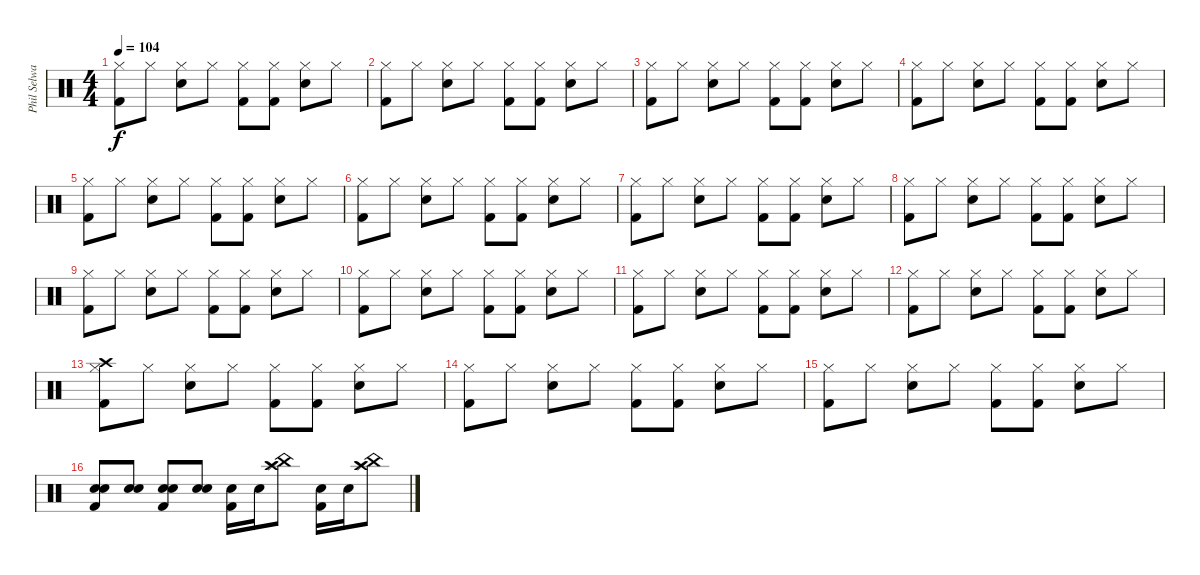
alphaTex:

\track ("Phil Selway" "Phil Selwa") {instrument percussion}
\staff {score}
\articulation defaults
\ts (4 4)
\tempo 104
\clef neutral
\ks c
("Kick (hit) 2" "Hi-Hat (closed)").8{dy f} "Hi-Hat (closed)".8 ("Electric Snare (hit)" "Hi-Hat (closed)").8 "Hi-Hat (closed)".8 ("Kick (hit) 2" "Hi-Hat (closed)").8 ("Kick (hit) 2" "Hi-Hat (closed)").8 ("Electric Snare (hit)" "Hi-Hat (closed)").8 "Hi-Hat (closed)".8 |
("Kick (hit) 2" "Hi-Hat (closed)").8 "Hi-Hat (closed)".8 ("Electric Snare (hit)" "Hi-Hat (closed)").8 "Hi-Hat (closed)".8 ("Kick (hit) 2" "Hi-Hat (closed)").8 ("Kick (hit) 2" "Hi-Hat (closed)").8 ("Electric Snare (hit)" "Hi-Hat (closed)").8 "Hi-Hat (closed)".8 |
("Kick (hit) 2" "Hi-Hat (closed)").8 "Hi-Hat (closed)".8 ("Electric Snare (hit)" "Hi-Hat (closed)").8 "Hi-Hat (closed)".8 ("Kick (hit) 2" "Hi-Hat (closed)").8 ("Kick (hit) 2" "Hi-Hat (closed)").8 ("Electric Snare (hit)" "Hi-Hat (closed)").8 "Hi-Hat (closed)".8 |
("Kick (hit) 2" "Hi-Hat (closed)").8 "Hi-Hat (closed)".8 ("Electric Snare (hit)" "Hi-Hat (closed)").8 "Hi-Hat (closed)".8 ("Kick (hit) 2" "Hi-Hat (closed)").8 ("Kick (hit) 2" "Hi-Hat (closed)").8 ("Electric Snare (hit)" "Hi-Hat (closed)").8 "Hi-Hat (closed)".8 |
("Kick (hit) 2" "Hi-Hat (closed)").8 "Hi-Hat (closed)".8 ("Electric Snare (hit)" "Hi-Hat (closed)").8 "Hi-Hat (closed)".8 ("Kick (hit) 2" "Hi-Hat (closed)").8 ("Kick (hit) 2" "Hi-Hat (closed)").8 ("Electric Snare (hit)" "Hi-Hat (closed)").8 "Hi-Hat (closed)".8 |
("Kick (hit) 2" "Hi-Hat (closed)").8 "Hi-Hat (closed)".8 ("Electric Snare (hit)" "Hi-Hat (closed)").8 "Hi-Hat (closed)".8 ("Kick (hit) 2" "Hi-Hat (closed)").8 ("Kick (hit) 2" "Hi-Hat (closed)").8 ("Electric Snare (hit)" "Hi-Hat (closed)").8 "Hi-Hat (closed)".8 |
("Kick (hit) 2" "Hi-Hat (closed)").8 "Hi-Hat (closed)".8 ("Electric Snare (hit)" "Hi-Hat (closed)").8 "Hi-Hat (closed)".8 ("Kick (hit) 2" "Hi-Hat (closed)").8 ("Kick (hit) 2" "Hi-Hat (closed)").8 ("Electric Snare (hit)" "Hi-Hat (closed)").8 "Hi-Hat (closed)".8 |
("Kick (hit) 2" "Hi-Hat (closed)").8 "Hi-Hat (closed)".8 ("Electric Snare (hit)" "Hi-Hat (closed)").8 "Hi-Hat (closed)".8 ("Kick (hit) 2" "Hi-Hat (closed)").8 ("Kick (hit) 2" "Hi-Hat (closed)").8 ("Electric Snare (hit)" "Hi-Hat (closed)").8 "Hi-Hat (closed)".8 |
("Kick (hit) 2" "Hi-Hat (closed)").8 "Hi-Hat (closed)".8 ("Electric Snare (hit)" "Hi-Hat (closed)").8 "Hi-Hat (closed)".8 ("Kick (hit) 2" "Hi-Hat (closed)").8 ("Kick (hit) 2" "Hi-Hat (closed)").8 ("Electric Snare (hit)" "Hi-Hat (closed)").8 "Hi-Hat (closed)".8 |
("Kick (hit) 2" "Hi-Hat (closed)").8 "Hi-Hat (closed)".8 ("Electric Snare (hit)" "Hi-Hat (closed)").8 "Hi-Hat (closed)".8 ("Kick (hit) 2" "Hi-Hat (closed)").8 ("Kick (hit) 2" "Hi-Hat (closed)").8 ("Electric Snare (hit)" "Hi-Hat (closed)").8 "Hi-Hat (closed)".8 |
("Kick (hit) 2" "Hi-Hat (closed)").8 "Hi-Hat (closed)".8 ("Electric Snare (hit)" "Hi-Hat (closed)").8 "Hi-Hat (closed)".8 ("Kick (hit) 2" "Hi-Hat (closed)").8 ("Kick (hit) 2" "Hi-Hat (closed)").8 ("Electric Snare (hit)" "Hi-Hat (closed)").8 "Hi-Hat (closed)".8 |
("Kick (hit) 2" "Hi-Hat (closed)").8 "Hi-Hat (closed)".8 ("Electric Snare (hit)" "Hi-Hat (closed)").8 "Hi-Hat (closed)".8 ("Kick (hit) 2" "Hi-Hat (closed)").8 ("Kick (hit) 2" "Hi-Hat (closed)").8 ("Electric Snare (hit)" "Hi-Hat (closed)").8 "Hi-Hat (closed)".8 |
("Kick (hit) 2" "Crash high (hit)" "Hi-Hat (closed)").8 "Hi-Hat (closed)".8 ("Electric Snare (hit)" "Hi-Hat (closed)").8 "Hi-Hat (closed)".8 ("Kick (hit) 2" "Hi-Hat (closed)").8 ("Kick (hit) 2" "Hi-Hat (closed)").8 ("Electric Snare (hit)" "Hi-Hat (closed)").8 "Hi-Hat (closed)".8 |
("Kick (hit) 2" "Hi-Hat (closed)").8 "Hi-Hat (closed)".8 ("Electric Snare (hit)" "Hi-Hat (closed)").8 "Hi-Hat (closed)".8 ("Kick (hit) 2" "Hi-Hat (closed)").8 ("Kick (hit) 2" "Hi-Hat (closed)").8 ("Electric Snare (hit)" "Hi-Hat (closed)").8 "Hi-Hat (closed)".8 |
("Kick (hit) 2" "Hi-Hat (closed)").8 "Hi-Hat (closed)".8 ("Electric Snare (hit)" "Hi-Hat (closed)").8 "Hi-Hat (closed)".8 ("Kick (hit) 2" "Hi-Hat (closed)").8 ("Kick (hit) 2" "Hi-Hat (closed)").8 ("Electric Snare (hit)" "Hi-Hat (closed)").8 "Hi-Hat (closed)".8 |
("Electric Snare (hit)" "Snare (hit) 2" "Kick (hit) 2").8 ("Electric Snare (hit)" "Snare (hit) 2").8 ("Electric Snare (hit)" "Snare (hit) 2" "Kick (hit) 2").8 ("Electric Snare (hit)" "Snare (hit) 2").8 ("Electric Snare (hit)" "Kick (hit) 2").16 "Electric Snare (hit)".16 ("Splash (hit)" "China (hit)" "Crash high (hit)").8 ("Electric Snare (hit)" "Kick (hit) 2").16 "Electric Snare (hit)".16 ("Splash (hit)" "China (hit)" "Crash high (hit)").8
